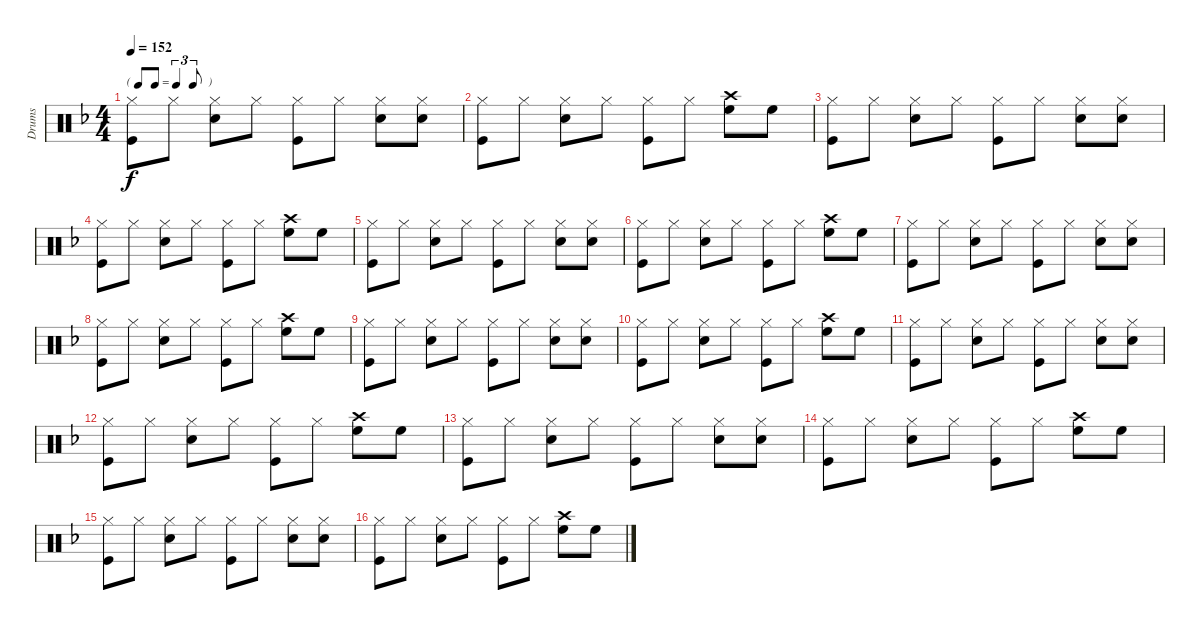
\track ("Drums" "Drums") {instrument percussion}
\staff {score}
\articulation defaults
\ts (4 4)
\tf triplet8th
\tempo 152
\clef neutral
\ks f
("Hi-Hat (closed)" "Kick (hit)").8{dy f} "Hi-Hat (closed)".8 ("Hi-Hat (closed)" "Snare (hit) 2").8 "Hi-Hat (closed)".8 ("Hi-Hat (closed)" "Kick (hit)").8 "Hi-Hat (closed)".8 ("Hi-Hat (closed)" "Snare (hit) 2").8 ("Hi-Hat (closed)" "Snare (hit) 2").8 |
("Hi-Hat (closed)" "Kick (hit)").8 "Hi-Hat (closed)".8 ("Hi-Hat (closed)" "Snare (hit) 2").8 "Hi-Hat (closed)".8 ("Hi-Hat (closed)" "Kick (hit)").8 "Hi-Hat (closed)".8 ("Crash high (hit)" "High Floor Tom (hit)").8 "High Floor Tom (hit)".8 |
("Hi-Hat (closed)" "Kick (hit)").8 "Hi-Hat (closed)".8 ("Hi-Hat (closed)" "Snare (hit) 2").8 "Hi-Hat (closed)".8 ("Hi-Hat (closed)" "Kick (hit)").8 "Hi-Hat (closed)".8 ("Hi-Hat (closed)" "Snare (hit) 2").8 ("Hi-Hat (closed)" "Snare (hit) 2").8 |
("Hi-Hat (closed)" "Kick (hit)").8 "Hi-Hat (closed)".8 ("Hi-Hat (closed)" "Snare (hit) 2").8 "Hi-Hat (closed)".8 ("Hi-Hat (closed)" "Kick (hit)").8 "Hi-Hat (closed)".8 ("Crash high (hit)" "High Floor Tom (hit)").8 "High Floor Tom (hit)".8 |
("Hi-Hat (closed)" "Kick (hit)").8 "Hi-Hat (closed)".8 ("Hi-Hat (closed)" "Snare (hit) 2").8 "Hi-Hat (closed)".8 ("Hi-Hat (closed)" "Kick (hit)").8 "Hi-Hat (closed)".8 ("Hi-Hat (closed)" "Snare (hit) 2").8 ("Hi-Hat (closed)" "Snare (hit) 2").8 |
("Hi-Hat (closed)" "Kick (hit)").8 "Hi-Hat (closed)".8 ("Hi-Hat (closed)" "Snare (hit) 2").8 "Hi-Hat (closed)".8 ("Hi-Hat (closed)" "Kick (hit)").8 "Hi-Hat (closed)".8 ("Crash high (hit)" "High Floor Tom (hit)").8 "High Floor Tom (hit)".8 |
("Hi-Hat (closed)" "Kick (hit)").8 "Hi-Hat (closed)".8 ("Hi-Hat (closed)" "Snare (hit) 2").8 "Hi-Hat (closed)".8 ("Hi-Hat (closed)" "Kick (hit)").8 "Hi-Hat (closed)".8 ("Hi-Hat (closed)" "Snare (hit) 2").8 ("Hi-Hat (closed)" "Snare (hit) 2").8 |
("Hi-Hat (closed)" "Kick (hit)").8 "Hi-Hat (closed)".8 ("Hi-Hat (closed)" "Snare (hit) 2").8 "Hi-Hat (closed)".8 ("Hi-Hat (closed)" "Kick (hit)").8 "Hi-Hat (closed)".8 ("Crash high (hit)" "High Floor Tom (hit)").8 "High Floor Tom (hit)".8 |
("Hi-Hat (closed)" "Kick (hit)").8 "Hi-Hat (closed)".8 ("Hi-Hat (closed)" "Snare (hit) 2").8 "Hi-Hat (closed)".8 ("Hi-Hat (closed)" "Kick (hit)").8 "Hi-Hat (closed)".8 ("Hi-Hat (closed)" "Snare (hit) 2").8 ("Hi-Hat (closed)" "Snare (hit) 2").8 |
("Hi-Hat (closed)" "Kick (hit)").8 "Hi-Hat (closed)".8 ("Hi-Hat (closed)" "Snare (hit) 2").8 "Hi-Hat (closed)".8 ("Hi-Hat (closed)" "Kick (hit)").8 "Hi-Hat (closed)".8 ("Crash high (hit)" "High Floor Tom (hit)").8 "High Floor Tom (hit)".8 |
("Hi-Hat (closed)" "Kick (hit)").8 "Hi-Hat (closed)".8 ("Hi-Hat (closed)" "Snare (hit) 2").8 "Hi-Hat (closed)".8 ("Hi-Hat (closed)" "Kick (hit)").8 "Hi-Hat (closed)".8 ("Hi-Hat (closed)" "Snare (hit) 2").8 ("Hi-Hat (closed)" "Snare (hit) 2").8 |
("Hi-Hat (closed)" "Kick (hit)").8 "Hi-Hat (closed)".8 ("Hi-Hat (closed)" "Snare (hit) 2").8 "Hi-Hat (closed)".8 ("Hi-Hat (closed)" "Kick (hit)").8 "Hi-Hat (closed)".8 ("Crash high (hit)" "High Floor Tom (hit)").8 "High Floor Tom (hit)".8 |
("Hi-Hat (closed)" "Kick (hit)").8 "Hi-Hat (closed)".8 ("Hi-Hat (closed)" "Snare (hit) 2").8 "Hi-Hat (closed)".8 ("Hi-Hat (closed)" "Kick (hit)").8 "Hi-Hat (closed)".8 ("Hi-Hat (closed)" "Snare (hit) 2").8 ("Hi-Hat (closed)" "Snare (hit) 2").8 |
("Hi-Hat (closed)" "Kick (hit)").8 "Hi-Hat (closed)".8 ("Hi-Hat (closed)" "Snare (hit) 2").8 "Hi-Hat (closed)".8 ("Hi-Hat (closed)" "Kick (hit)").8 "Hi-Hat (closed)".8 ("Crash high (hit)" "High Floor Tom (hit)").8 "High Floor Tom (hit)".8 |
("Hi-Hat (closed)" "Kick (hit)").8 "Hi-Hat (closed)".8 ("Hi-Hat (closed)" "Snare (hit) 2").8 "Hi-Hat (closed)".8 ("Hi-Hat (closed)" "Kick (hit)").8 "Hi-Hat (closed)".8 ("Hi-Hat (closed)" "Snare (hit) 2").8 ("Hi-Hat (closed)" "Snare (hit) 2").8 |
("Hi-Hat (closed)" "Kick (hit)").8 "Hi-Hat (closed)".8 ("Hi-Hat (closed)" "Snare (hit) 2").8 "Hi-Hat (closed)".8 ("Hi-Hat (closed)" "Kick (hit)").8 "Hi-Hat (closed)".8 ("Crash high (hit)" "High Floor Tom (hit)").8 "High Floor Tom (hit)".8
